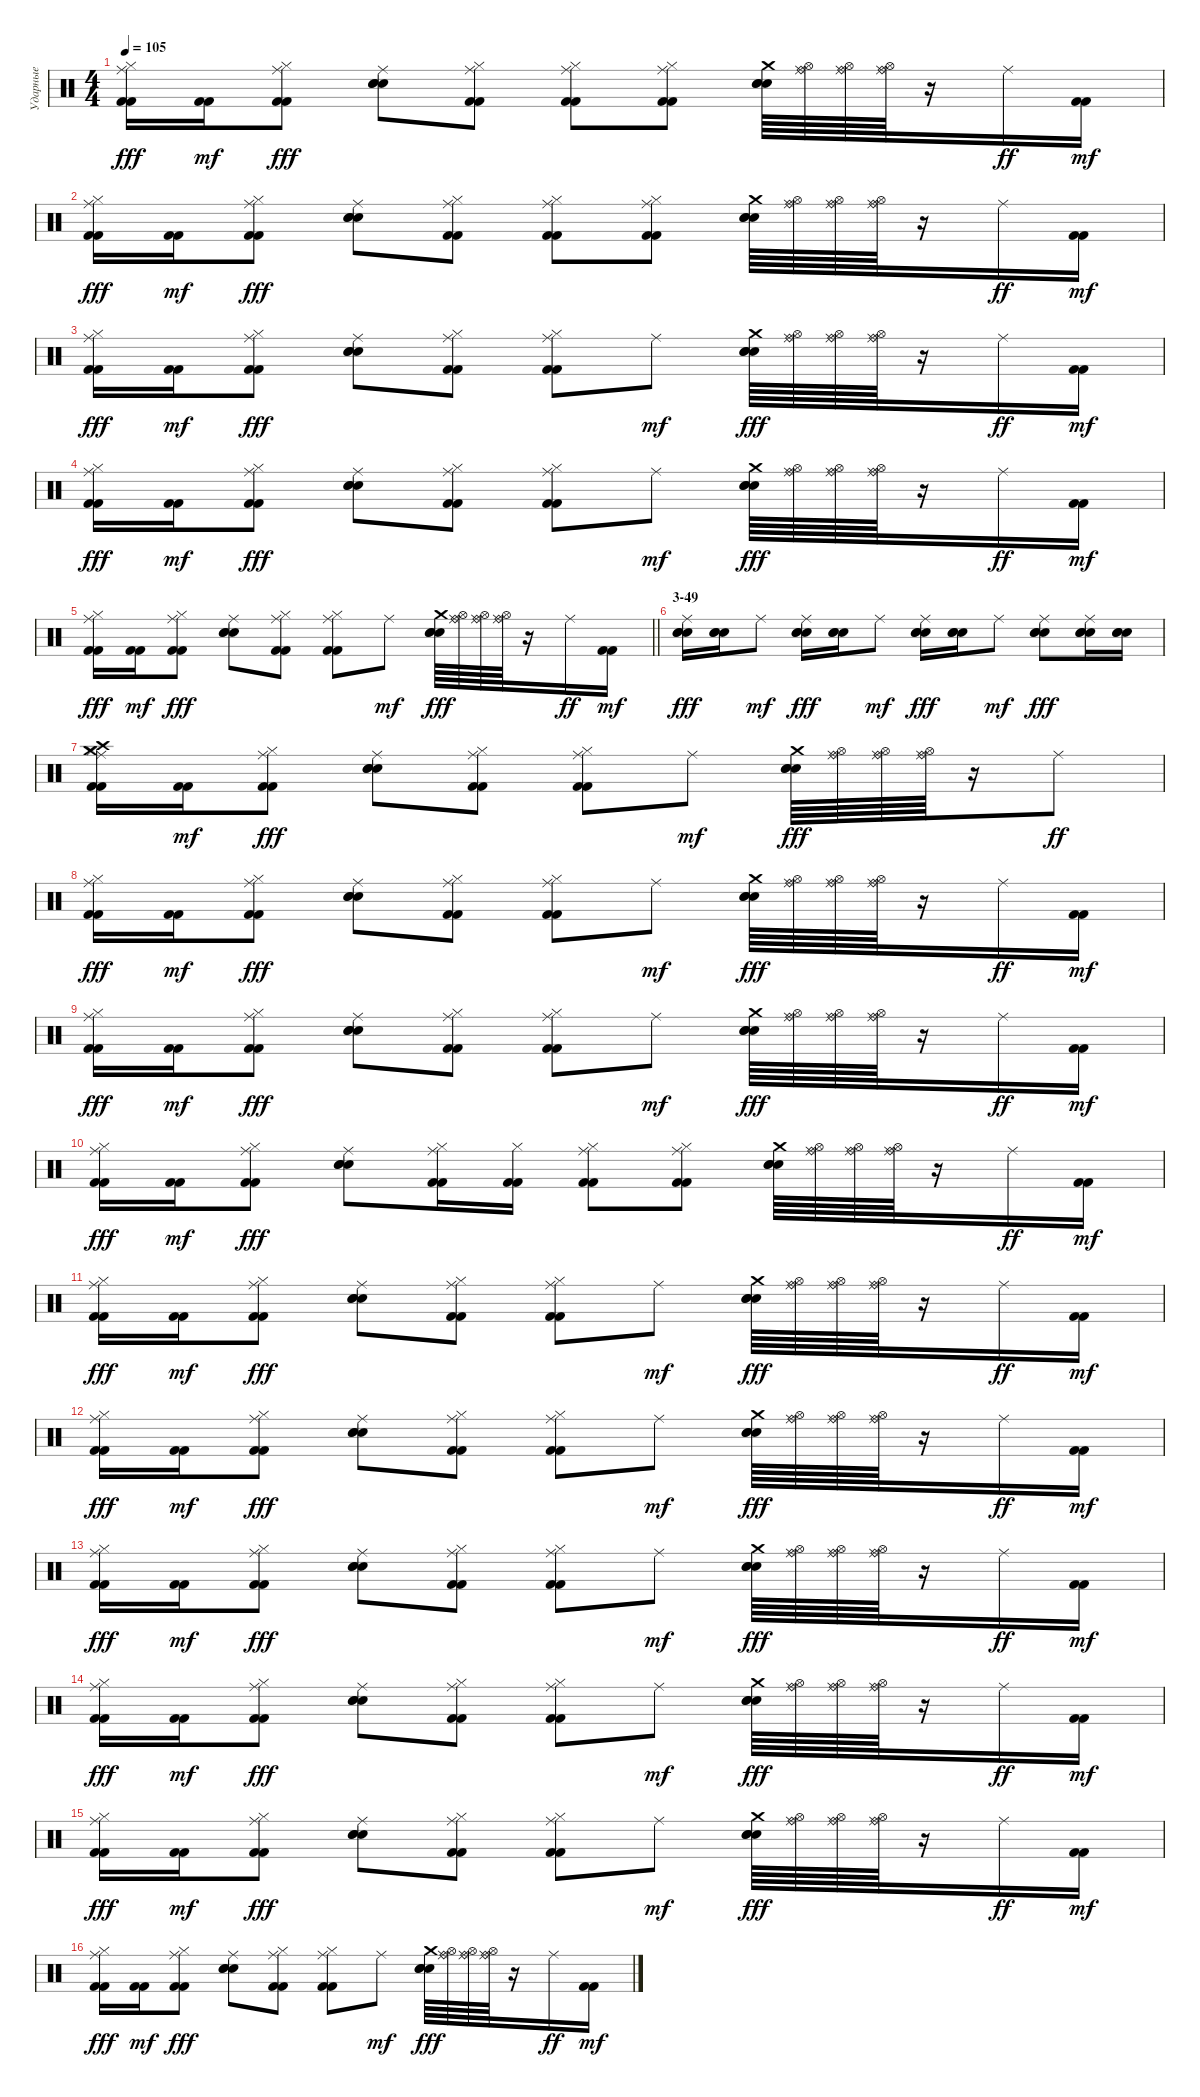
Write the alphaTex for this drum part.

\track ("Ударные" "Ударные") {instrument percussion}
\staff {score}
\articulation defaults
\ts (4 4)
\tempo 105
\clef neutral
\ks c
("Ride (middle)" "Hi-Hat (closed)" "Kick (hit) 2" "Kick (hit) 2").16{dy fff} ("Kick (hit) 2" "Kick (hit) 2").16{dy mf} ("Ride (middle)" "Hi-Hat (closed)" "Kick (hit) 2" "Kick (hit) 2").8{dy fff} ("Ride (middle)" "Snare (hit) 2" "Electric Snare (hit)" "Hand Clap (hit)").8 ("Ride (middle)" "Hi-Hat (closed)" "Kick (hit) 2" "Kick (hit) 2").8 ("Ride (middle)" "Hi-Hat (closed)" "Kick (hit) 2" "Kick (hit) 2").8 ("Ride (middle)" "Hi-Hat (closed)" "Kick (hit) 2" "Kick (hit) 2").8 ("Crash medium (hit)" "Snare (hit) 2" "Electric Snare (hit)" "Hand Clap (hit)").64 ("Ride (middle)" "Hi-Hat (open)" "Ride (bell)").64 ("Ride (middle)" "Hi-Hat (open)" "Ride (bell)").64 ("Ride (middle)" "Hi-Hat (open)" "Ride (bell)").64 r.16 "Ride (middle)".16{dy ff} ("Kick (hit) 2" "Kick (hit) 2").16{dy mf} |
("Ride (middle)" "Hi-Hat (closed)" "Kick (hit) 2" "Kick (hit) 2").16{dy fff} ("Kick (hit) 2" "Kick (hit) 2").16{dy mf} ("Ride (middle)" "Hi-Hat (closed)" "Kick (hit) 2" "Kick (hit) 2").8{dy fff} ("Ride (middle)" "Snare (hit) 2" "Electric Snare (hit)" "Hand Clap (hit)").8 ("Ride (middle)" "Hi-Hat (closed)" "Kick (hit) 2" "Kick (hit) 2").8 ("Ride (middle)" "Hi-Hat (closed)" "Kick (hit) 2" "Kick (hit) 2").8 ("Ride (middle)" "Hi-Hat (closed)" "Kick (hit) 2" "Kick (hit) 2").8 ("Crash medium (hit)" "Snare (hit) 2" "Electric Snare (hit)" "Hand Clap (hit)").64 ("Ride (middle)" "Hi-Hat (open)" "Ride (bell)").64 ("Ride (middle)" "Hi-Hat (open)" "Ride (bell)").64 ("Ride (middle)" "Hi-Hat (open)" "Ride (bell)").64 r.16 "Ride (middle)".16{dy ff} ("Kick (hit) 2" "Kick (hit) 2").16{dy mf} |
("Ride (middle)" "Hi-Hat (closed)" "Kick (hit) 2" "Kick (hit) 2").16{dy fff} ("Kick (hit) 2" "Kick (hit) 2").16{dy mf} ("Ride (middle)" "Hi-Hat (closed)" "Kick (hit) 2" "Kick (hit) 2").8{dy fff} ("Ride (middle)" "Snare (hit) 2" "Electric Snare (hit)" "Hand Clap (hit)").8 ("Ride (middle)" "Hi-Hat (closed)" "Kick (hit) 2" "Kick (hit) 2").8 ("Ride (middle)" "Hi-Hat (closed)" "Kick (hit) 2" "Kick (hit) 2").8 "Ride (middle)".8{dy mf} ("Crash medium (hit)" "Snare (hit) 2" "Electric Snare (hit)" "Hand Clap (hit)").64{dy fff} ("Ride (middle)" "Hi-Hat (open)" "Ride (bell)").64 ("Ride (middle)" "Hi-Hat (open)" "Ride (bell)").64 ("Ride (middle)" "Hi-Hat (open)" "Ride (bell)").64 r.16 "Ride (middle)".16{dy ff} ("Kick (hit) 2" "Kick (hit) 2").16{dy mf} |
("Ride (middle)" "Hi-Hat (closed)" "Kick (hit) 2" "Kick (hit) 2").16{dy fff} ("Kick (hit) 2" "Kick (hit) 2").16{dy mf} ("Ride (middle)" "Hi-Hat (closed)" "Kick (hit) 2" "Kick (hit) 2").8{dy fff} ("Ride (middle)" "Snare (hit) 2" "Electric Snare (hit)" "Hand Clap (hit)").8 ("Ride (middle)" "Hi-Hat (closed)" "Kick (hit) 2" "Kick (hit) 2").8 ("Ride (middle)" "Hi-Hat (closed)" "Kick (hit) 2" "Kick (hit) 2").8 "Ride (middle)".8{dy mf} ("Crash medium (hit)" "Snare (hit) 2" "Electric Snare (hit)" "Hand Clap (hit)").64{dy fff} ("Ride (middle)" "Hi-Hat (open)" "Ride (bell)").64 ("Ride (middle)" "Hi-Hat (open)" "Ride (bell)").64 ("Ride (middle)" "Hi-Hat (open)" "Ride (bell)").64 r.16 "Ride (middle)".16{dy ff} ("Kick (hit) 2" "Kick (hit) 2").16{dy mf} |
\barLineRight lightlight
("Ride (middle)" "Hi-Hat (closed)" "Kick (hit) 2" "Kick (hit) 2").16{dy fff} ("Kick (hit) 2" "Kick (hit) 2").16{dy mf} ("Ride (middle)" "Hi-Hat (closed)" "Kick (hit) 2" "Kick (hit) 2").8{dy fff} ("Ride (middle)" "Snare (hit) 2" "Electric Snare (hit)" "Hand Clap (hit)").8 ("Ride (middle)" "Hi-Hat (closed)" "Kick (hit) 2" "Kick (hit) 2").8 ("Ride (middle)" "Hi-Hat (closed)" "Kick (hit) 2" "Kick (hit) 2").8 "Ride (middle)".8{dy mf} ("Crash medium (hit)" "Snare (hit) 2" "Electric Snare (hit)" "Hand Clap (hit)").64{dy fff} ("Ride (middle)" "Hi-Hat (open)" "Ride (bell)").64 ("Ride (middle)" "Hi-Hat (open)" "Ride (bell)").64 ("Ride (middle)" "Hi-Hat (open)" "Ride (bell)").64 r.16 "Ride (middle)".16{dy ff} ("Kick (hit) 2" "Kick (hit) 2").16{dy mf} |
\section ("" "3-49")
("Ride (middle)" "Snare (hit) 2" "Electric Snare (hit)" "Hand Clap (hit)").16{dy fff} ("Snare (hit) 2" "Electric Snare (hit)" "Hand Clap (hit)").16 "Ride (middle)".8{dy mf} ("Ride (middle)" "Snare (hit) 2" "Electric Snare (hit)" "Hand Clap (hit)").16{dy fff} ("Snare (hit) 2" "Electric Snare (hit)" "Hand Clap (hit)").16 "Ride (middle)".8{dy mf} ("Ride (middle)" "Snare (hit) 2" "Electric Snare (hit)" "Hand Clap (hit)").16{dy fff} ("Snare (hit) 2" "Electric Snare (hit)" "Hand Clap (hit)").16 "Ride (middle)".8{dy mf} ("Ride (middle)" "Snare (hit) 2" "Electric Snare (hit)" "Hand Clap (hit)").8{dy fff} ("Ride (middle)" "Snare (hit) 2" "Electric Snare (hit)" "Hand Clap (hit)").16 ("Snare (hit) 2" "Electric Snare (hit)" "Hand Clap (hit)").16 |
("Ride (middle)" "Crash high (hit)" "Hi-Hat (closed)" "Kick (hit) 2" "Kick (hit) 2" "Crash medium (hit)").16 ("Kick (hit) 2" "Kick (hit) 2").16{dy mf} ("Ride (middle)" "Hi-Hat (closed)" "Kick (hit) 2" "Kick (hit) 2").8{dy fff} ("Ride (middle)" "Snare (hit) 2" "Electric Snare (hit)" "Hand Clap (hit)").8 ("Ride (middle)" "Hi-Hat (closed)" "Kick (hit) 2" "Kick (hit) 2").8 ("Ride (middle)" "Hi-Hat (closed)" "Kick (hit) 2" "Kick (hit) 2").8 "Ride (middle)".8{dy mf} ("Crash medium (hit)" "Snare (hit) 2" "Electric Snare (hit)" "Hand Clap (hit)").64{dy fff} ("Ride (middle)" "Hi-Hat (open)" "Ride (bell)").64 ("Ride (middle)" "Hi-Hat (open)" "Ride (bell)").64 ("Ride (middle)" "Hi-Hat (open)" "Ride (bell)").64 r.16 "Ride (middle)".8{dy ff} |
("Ride (middle)" "Hi-Hat (closed)" "Kick (hit) 2" "Kick (hit) 2").16{dy fff} ("Kick (hit) 2" "Kick (hit) 2").16{dy mf} ("Ride (middle)" "Hi-Hat (closed)" "Kick (hit) 2" "Kick (hit) 2").8{dy fff} ("Ride (middle)" "Snare (hit) 2" "Electric Snare (hit)" "Hand Clap (hit)").8 ("Ride (middle)" "Hi-Hat (closed)" "Kick (hit) 2" "Kick (hit) 2").8 ("Ride (middle)" "Hi-Hat (closed)" "Kick (hit) 2" "Kick (hit) 2").8 "Ride (middle)".8{dy mf} ("Crash medium (hit)" "Snare (hit) 2" "Electric Snare (hit)" "Hand Clap (hit)").64{dy fff} ("Ride (middle)" "Hi-Hat (open)" "Ride (bell)").64 ("Ride (middle)" "Hi-Hat (open)" "Ride (bell)").64 ("Ride (middle)" "Hi-Hat (open)" "Ride (bell)").64 r.16 "Ride (middle)".16{dy ff} ("Kick (hit) 2" "Kick (hit) 2").16{dy mf} |
("Ride (middle)" "Hi-Hat (closed)" "Kick (hit) 2" "Kick (hit) 2").16{dy fff} ("Kick (hit) 2" "Kick (hit) 2").16{dy mf} ("Ride (middle)" "Hi-Hat (closed)" "Kick (hit) 2" "Kick (hit) 2").8{dy fff} ("Ride (middle)" "Snare (hit) 2" "Electric Snare (hit)" "Hand Clap (hit)").8 ("Ride (middle)" "Hi-Hat (closed)" "Kick (hit) 2" "Kick (hit) 2").8 ("Ride (middle)" "Hi-Hat (closed)" "Kick (hit) 2" "Kick (hit) 2").8 "Ride (middle)".8{dy mf} ("Crash medium (hit)" "Snare (hit) 2" "Electric Snare (hit)" "Hand Clap (hit)").64{dy fff} ("Ride (middle)" "Hi-Hat (open)" "Ride (bell)").64 ("Ride (middle)" "Hi-Hat (open)" "Ride (bell)").64 ("Ride (middle)" "Hi-Hat (open)" "Ride (bell)").64 r.16 "Ride (middle)".16{dy ff} ("Kick (hit) 2" "Kick (hit) 2").16{dy mf} |
("Ride (middle)" "Hi-Hat (closed)" "Kick (hit) 2" "Kick (hit) 2").16{dy fff} ("Kick (hit) 2" "Kick (hit) 2").16{dy mf} ("Ride (middle)" "Hi-Hat (closed)" "Kick (hit) 2" "Kick (hit) 2").8{dy fff} ("Ride (middle)" "Snare (hit) 2" "Electric Snare (hit)" "Hand Clap (hit)").8 ("Ride (middle)" "Hi-Hat (closed)" "Kick (hit) 2" "Kick (hit) 2").16 ("Hi-Hat (closed)" "Kick (hit) 2" "Kick (hit) 2").16 ("Ride (middle)" "Hi-Hat (closed)" "Kick (hit) 2" "Kick (hit) 2").8 ("Ride (middle)" "Hi-Hat (closed)" "Kick (hit) 2" "Kick (hit) 2").8 ("Crash medium (hit)" "Snare (hit) 2" "Electric Snare (hit)" "Hand Clap (hit)").64 ("Ride (middle)" "Hi-Hat (open)" "Ride (bell)").64 ("Ride (middle)" "Hi-Hat (open)" "Ride (bell)").64 ("Ride (middle)" "Hi-Hat (open)" "Ride (bell)").64 r.16 "Ride (middle)".16{dy ff} ("Kick (hit) 2" "Kick (hit) 2").16{dy mf} |
("Ride (middle)" "Hi-Hat (closed)" "Kick (hit) 2" "Kick (hit) 2").16{dy fff} ("Kick (hit) 2" "Kick (hit) 2").16{dy mf} ("Ride (middle)" "Hi-Hat (closed)" "Kick (hit) 2" "Kick (hit) 2").8{dy fff} ("Ride (middle)" "Snare (hit) 2" "Electric Snare (hit)" "Hand Clap (hit)").8 ("Ride (middle)" "Hi-Hat (closed)" "Kick (hit) 2" "Kick (hit) 2").8 ("Ride (middle)" "Hi-Hat (closed)" "Kick (hit) 2" "Kick (hit) 2").8 "Ride (middle)".8{dy mf} ("Crash medium (hit)" "Snare (hit) 2" "Electric Snare (hit)" "Hand Clap (hit)").64{dy fff} ("Ride (middle)" "Hi-Hat (open)" "Ride (bell)").64 ("Ride (middle)" "Hi-Hat (open)" "Ride (bell)").64 ("Ride (middle)" "Hi-Hat (open)" "Ride (bell)").64 r.16 "Ride (middle)".16{dy ff} ("Kick (hit) 2" "Kick (hit) 2").16{dy mf} |
("Ride (middle)" "Hi-Hat (closed)" "Kick (hit) 2" "Kick (hit) 2").16{dy fff} ("Kick (hit) 2" "Kick (hit) 2").16{dy mf} ("Ride (middle)" "Hi-Hat (closed)" "Kick (hit) 2" "Kick (hit) 2").8{dy fff} ("Ride (middle)" "Snare (hit) 2" "Electric Snare (hit)" "Hand Clap (hit)").8 ("Ride (middle)" "Hi-Hat (closed)" "Kick (hit) 2" "Kick (hit) 2").8 ("Ride (middle)" "Hi-Hat (closed)" "Kick (hit) 2" "Kick (hit) 2").8 "Ride (middle)".8{dy mf} ("Crash medium (hit)" "Snare (hit) 2" "Electric Snare (hit)" "Hand Clap (hit)").64{dy fff} ("Ride (middle)" "Hi-Hat (open)" "Ride (bell)").64 ("Ride (middle)" "Hi-Hat (open)" "Ride (bell)").64 ("Ride (middle)" "Hi-Hat (open)" "Ride (bell)").64 r.16 "Ride (middle)".16{dy ff} ("Kick (hit) 2" "Kick (hit) 2").16{dy mf} |
("Ride (middle)" "Hi-Hat (closed)" "Kick (hit) 2" "Kick (hit) 2").16{dy fff} ("Kick (hit) 2" "Kick (hit) 2").16{dy mf} ("Ride (middle)" "Hi-Hat (closed)" "Kick (hit) 2" "Kick (hit) 2").8{dy fff} ("Ride (middle)" "Snare (hit) 2" "Electric Snare (hit)" "Hand Clap (hit)").8 ("Ride (middle)" "Hi-Hat (closed)" "Kick (hit) 2" "Kick (hit) 2").8 ("Ride (middle)" "Hi-Hat (closed)" "Kick (hit) 2" "Kick (hit) 2").8 "Ride (middle)".8{dy mf} ("Crash medium (hit)" "Snare (hit) 2" "Electric Snare (hit)" "Hand Clap (hit)").64{dy fff} ("Ride (middle)" "Hi-Hat (open)" "Ride (bell)").64 ("Ride (middle)" "Hi-Hat (open)" "Ride (bell)").64 ("Ride (middle)" "Hi-Hat (open)" "Ride (bell)").64 r.16 "Ride (middle)".16{dy ff} ("Kick (hit) 2" "Kick (hit) 2").16{dy mf} |
("Ride (middle)" "Hi-Hat (closed)" "Kick (hit) 2" "Kick (hit) 2").16{dy fff} ("Kick (hit) 2" "Kick (hit) 2").16{dy mf} ("Ride (middle)" "Hi-Hat (closed)" "Kick (hit) 2" "Kick (hit) 2").8{dy fff} ("Ride (middle)" "Snare (hit) 2" "Electric Snare (hit)" "Hand Clap (hit)").8 ("Ride (middle)" "Hi-Hat (closed)" "Kick (hit) 2" "Kick (hit) 2").8 ("Ride (middle)" "Hi-Hat (closed)" "Kick (hit) 2" "Kick (hit) 2").8 "Ride (middle)".8{dy mf} ("Crash medium (hit)" "Snare (hit) 2" "Electric Snare (hit)" "Hand Clap (hit)").64{dy fff} ("Ride (middle)" "Hi-Hat (open)" "Ride (bell)").64 ("Ride (middle)" "Hi-Hat (open)" "Ride (bell)").64 ("Ride (middle)" "Hi-Hat (open)" "Ride (bell)").64 r.16 "Ride (middle)".16{dy ff} ("Kick (hit) 2" "Kick (hit) 2").16{dy mf} |
("Ride (middle)" "Hi-Hat (closed)" "Kick (hit) 2" "Kick (hit) 2").16{dy fff} ("Kick (hit) 2" "Kick (hit) 2").16{dy mf} ("Ride (middle)" "Hi-Hat (closed)" "Kick (hit) 2" "Kick (hit) 2").8{dy fff} ("Ride (middle)" "Snare (hit) 2" "Electric Snare (hit)" "Hand Clap (hit)").8 ("Ride (middle)" "Hi-Hat (closed)" "Kick (hit) 2" "Kick (hit) 2").8 ("Ride (middle)" "Hi-Hat (closed)" "Kick (hit) 2" "Kick (hit) 2").8 "Ride (middle)".8{dy mf} ("Crash medium (hit)" "Snare (hit) 2" "Electric Snare (hit)" "Hand Clap (hit)").64{dy fff} ("Ride (middle)" "Hi-Hat (open)" "Ride (bell)").64 ("Ride (middle)" "Hi-Hat (open)" "Ride (bell)").64 ("Ride (middle)" "Hi-Hat (open)" "Ride (bell)").64 r.16 "Ride (middle)".16{dy ff} ("Kick (hit) 2" "Kick (hit) 2").16{dy mf} |
("Ride (middle)" "Hi-Hat (closed)" "Kick (hit) 2" "Kick (hit) 2").16{dy fff} ("Kick (hit) 2" "Kick (hit) 2").16{dy mf} ("Ride (middle)" "Hi-Hat (closed)" "Kick (hit) 2" "Kick (hit) 2").8{dy fff} ("Ride (middle)" "Snare (hit) 2" "Electric Snare (hit)" "Hand Clap (hit)").8 ("Ride (middle)" "Hi-Hat (closed)" "Kick (hit) 2" "Kick (hit) 2").8 ("Ride (middle)" "Hi-Hat (closed)" "Kick (hit) 2" "Kick (hit) 2").8 "Ride (middle)".8{dy mf} ("Crash medium (hit)" "Snare (hit) 2" "Electric Snare (hit)" "Hand Clap (hit)").64{dy fff} ("Ride (middle)" "Hi-Hat (open)" "Ride (bell)").64 ("Ride (middle)" "Hi-Hat (open)" "Ride (bell)").64 ("Ride (middle)" "Hi-Hat (open)" "Ride (bell)").64 r.16 "Ride (middle)".16{dy ff} ("Kick (hit) 2" "Kick (hit) 2").16{dy mf}
